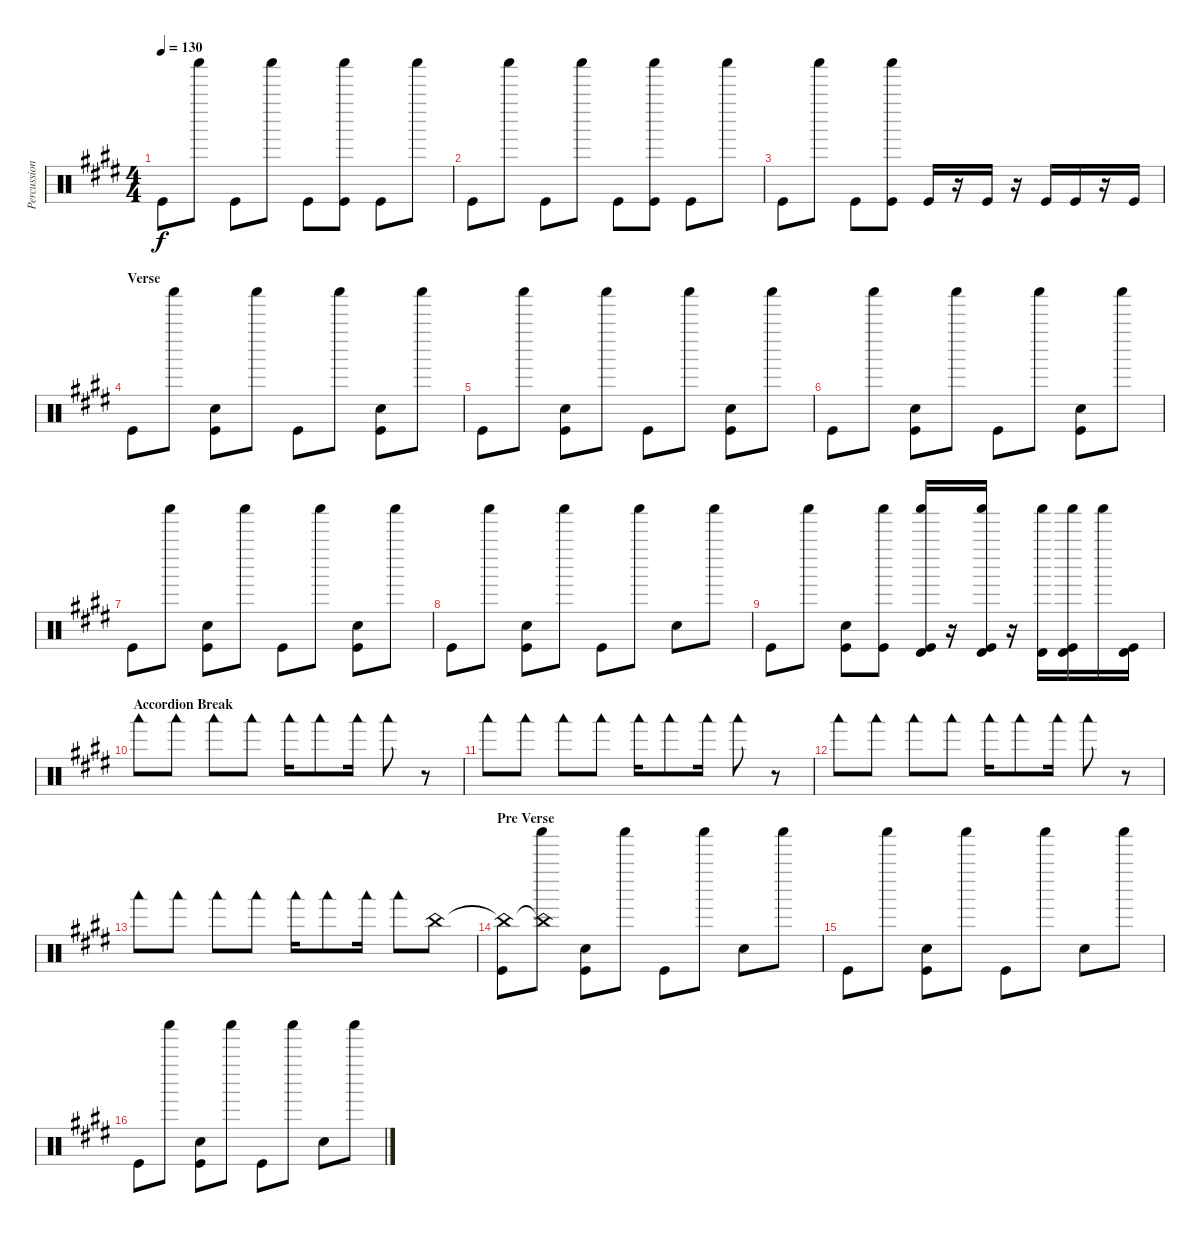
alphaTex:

\track ("Percussion" "Percussion") {instrument percussion}
\staff {score}
\articulation defaults
\ts (4 4)
\tempo 130
\clef neutral
\ks e "Kick (hit)".8{dy f} "Shaker (hit)".8 "Kick (hit)".8 "Shaker (hit)".8 "Kick (hit)".8
("Shaker (hit)" "Kick (hit)").8 "Kick (hit)".8 "Shaker (hit)".8 |
"Kick (hit)".8 "Shaker (hit)".8 "Kick (hit)".8 "Shaker (hit)".8 "Kick (hit)".8 ("Shaker (hit)" "Kick (hit)").8 "Kick (hit)".8 "Shaker (hit)".8 |
"Kick (hit)".8 "Shaker (hit)".8 "Kick (hit)".8 ("Shaker (hit)" "Kick (hit)").8 "Kick (hit)".16 r.16 "Kick (hit)".16 r.16 "Kick (hit)".16 "Kick (hit)".16 r.16 "Kick (hit)".16 |
\section ("" "Verse")
"Kick (hit)".8 "Shaker (hit)".8 ("Electric Snare (hit)" "Kick (hit)").8 "Shaker (hit)".8 "Kick (hit)".8 "Shaker (hit)".8 ("Electric Snare (hit)" "Kick (hit)").8 "Shaker (hit)".8 |
"Kick (hit)".8 "Shaker (hit)".8 ("Electric Snare (hit)" "Kick (hit)").8 "Shaker (hit)".8 "Kick (hit)".8 "Shaker (hit)".8 ("Electric Snare (hit)" "Kick (hit)").8 "Shaker (hit)".8 |
"Kick (hit)".8 "Shaker (hit)".8 ("Electric Snare (hit)" "Kick (hit)").8 "Shaker (hit)".8 "Kick (hit)".8 "Shaker (hit)".8 ("Electric Snare (hit)" "Kick (hit)").8 "Shaker (hit)".8 |
"Kick (hit)".8 "Shaker (hit)".8 ("Electric Snare (hit)" "Kick (hit)").8 "Shaker (hit)".8 "Kick (hit)".8 "Shaker (hit)".8 ("Electric Snare (hit)" "Kick (hit)").8 "Shaker (hit)".8 |
"Kick (hit)".8 "Shaker (hit)".8 ("Electric Snare (hit)" "Kick (hit)").8 "Shaker (hit)".8 "Kick (hit)".8 "Shaker (hit)".8 "Electric Snare (hit)".8 "Shaker (hit)".8 |
"Kick (hit)".8 "Shaker (hit)".8 ("Electric Snare (hit)" "Kick (hit)").8 ("Shaker (hit)" "Kick (hit)").8 ("Timbale high (hit)" "Shaker (hit)" "Kick (hit)").16 r.16 ("Timbale high (hit)" "Shaker (hit)" "Kick (hit)").16 r.16 ("Timbale high (hit)" "Shaker (hit)").16 ("Timbale high (hit)" "Shaker (hit)" "Kick (hit)").16 "Shaker (hit)".16 ("Timbale high (hit)" "Kick (hit)").16 |
\section ("" "Accordion Break")
"Woodblock low (hit)".8 "Woodblock low (hit)".8 "Woodblock low (hit)".8 "Woodblock low (hit)".8 "Woodblock low (hit)".16 "Woodblock low (hit)".8 "Woodblock low (hit)".16 "Woodblock low (hit)".8 r.8 |
"Woodblock low (hit)".8 "Woodblock low (hit)".8 "Woodblock low (hit)".8 "Woodblock low (hit)".8 "Woodblock low (hit)".16 "Woodblock low (hit)".8 "Woodblock low (hit)".16 "Woodblock low (hit)".8 r.8 |
"Woodblock low (hit)".8 "Woodblock low (hit)".8 "Woodblock low (hit)".8 "Woodblock low (hit)".8 "Woodblock low (hit)".16 "Woodblock low (hit)".8 "Woodblock low (hit)".16 "Woodblock low (hit)".8 r.8 |
"Woodblock low (hit)".8 "Woodblock low (hit)".8 "Woodblock low (hit)".8 "Woodblock low (hit)".8 "Woodblock low (hit)".16 "Woodblock low (hit)".8 "Woodblock low (hit)".16 "Woodblock low (hit)".8 "China (hit)".8 |
\section ("" "Pre Verse")
("China (hit)"{t} "Kick (hit)").8 ("China (hit)"{t} "Shaker (hit)").8 ("Electric Snare (hit)" "Kick (hit)").8 "Shaker (hit)".8 "Kick (hit)".8 "Shaker (hit)".8 "Electric Snare (hit)".8 "Shaker (hit)".8 |
"Kick (hit)".8 "Shaker (hit)".8 ("Electric Snare (hit)" "Kick (hit)").8 "Shaker (hit)".8 "Kick (hit)".8 "Shaker (hit)".8 "Electric Snare (hit)".8 "Shaker (hit)".8 |
"Kick (hit)".8 "Shaker (hit)".8 ("Electric Snare (hit)" "Kick (hit)").8 "Shaker (hit)".8 "Kick (hit)".8 "Shaker (hit)".8 "Electric Snare (hit)".8 "Shaker (hit)".8
